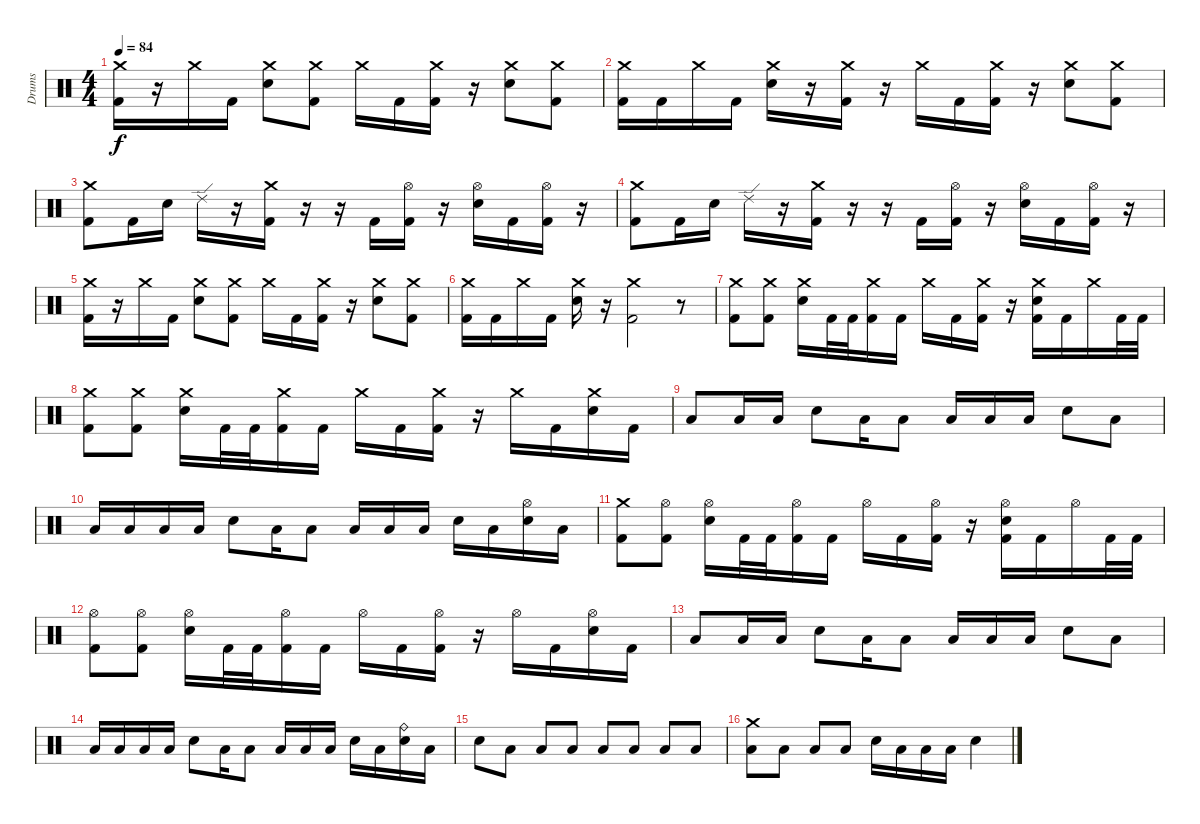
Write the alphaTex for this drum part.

\track ("Drums" "Drums") {instrument percussion}
\staff {score}
\articulation defaults
\ts (4 4)
\tempo 84
\clef neutral
\ks c
("Crash medium (hit)" "Kick (hit) 2").16{dy f} r.16 "Crash medium (hit)".16 "Kick (hit) 2".16 ("Crash medium (hit)" "Electric Snare (hit)").8 ("Crash medium (hit)" "Kick (hit) 2").8 "Crash medium (hit)".16 "Kick (hit) 2".16 ("Crash medium (hit)" "Kick (hit) 2").16 r.16 ("Crash medium (hit)" "Electric Snare (hit)").8 ("Crash medium (hit)" "Kick (hit) 2").8 |
("Crash medium (hit)" "Kick (hit) 2").16 "Kick (hit) 2".16 "Crash medium (hit)".16 "Kick (hit) 2".16 ("Crash medium (hit)" "Electric Snare (hit)").16 r.16 ("Crash medium (hit)" "Kick (hit) 2").16 r.16 "Crash medium (hit)".16 "Kick (hit) 2".16 ("Crash medium (hit)" "Kick (hit) 2").16 r.16 ("Crash medium (hit)" "Electric Snare (hit)").8 ("Crash medium (hit)" "Kick (hit) 2").8 |
("Crash medium (hit)" "Kick (hit) 2").8 "Kick (hit) 2".16 "Electric Snare (hit)".16 "Ride (edge) 2".16 r.16 ("Crash medium (hit)" "Kick (hit) 2").16 r.16 r.16 "Kick (hit) 2".16 ("Hi-Hat (open)" "Kick (hit) 2").16 r.16 ("Hi-Hat (open)" "Electric Snare (hit)").16 "Kick (hit) 2".16 ("Hi-Hat (open)" "Kick (hit) 2").16 r.16 |
("Crash medium (hit)" "Kick (hit) 2").8 "Kick (hit) 2".16 "Electric Snare (hit)".16 "Ride (edge) 2".16 r.16 ("Crash medium (hit)" "Kick (hit) 2").16 r.16 r.16 "Kick (hit) 2".16 ("Hi-Hat (open)" "Kick (hit) 2").16 r.16 ("Hi-Hat (open)" "Electric Snare (hit)").16 "Kick (hit) 2".16 ("Hi-Hat (open)" "Kick (hit) 2").16 r.16 |
("Crash medium (hit)" "Kick (hit) 2").16 r.16 "Crash medium (hit)".16 "Kick (hit) 2".16 ("Crash medium (hit)" "Electric Snare (hit)").8 ("Crash medium (hit)" "Kick (hit) 2").8 "Crash medium (hit)".16 "Kick (hit) 2".16 ("Crash medium (hit)" "Kick (hit) 2").16 r.16 ("Crash medium (hit)" "Electric Snare (hit)").8 ("Crash medium (hit)" "Kick (hit) 2").8 |
("Crash medium (hit)" "Kick (hit) 2").16 "Kick (hit) 2".16 "Crash medium (hit)".16 "Kick (hit) 2".16 ("Crash medium (hit)" "Electric Snare (hit)").16 r.16 ("Crash medium (hit)" "Kick (hit) 2").2 r.8 |
("Crash medium (hit)" "Kick (hit) 2").8 ("Crash medium (hit)" "Kick (hit) 2").8 ("Crash medium (hit)" "Electric Snare (hit)").16 "Kick (hit) 2".32 "Kick (hit) 2".32 ("Crash medium (hit)" "Kick (hit) 2").16 "Kick (hit) 2".16 "Crash medium (hit)".16 "Kick (hit) 2".16 ("Crash medium (hit)" "Kick (hit) 2").16 r.16 ("Crash medium (hit)" "Electric Snare (hit)" "Kick (hit) 2").16 "Kick (hit) 2".16 "Crash medium (hit)".16 "Kick (hit) 2".32 "Kick (hit) 2".32 |
("Crash medium (hit)" "Kick (hit) 2").8 ("Crash medium (hit)" "Kick (hit) 2").8 ("Crash medium (hit)" "Electric Snare (hit)").16 "Kick (hit) 2".32 "Kick (hit) 2".32 ("Crash medium (hit)" "Kick (hit) 2").16 "Kick (hit) 2".16 "Crash medium (hit)".16 "Kick (hit) 2".16 ("Crash medium (hit)" "Kick (hit) 2").16 r.16 "Crash medium (hit)".16 "Kick (hit) 2".16 ("Crash medium (hit)" "Electric Snare (hit)").16 "Kick (hit) 2".16 |
"Low Floor Tom (hit)".8 "Low Floor Tom (hit)".16 "Low Floor Tom (hit)".16 "Electric Snare (hit)".8 "Low Floor Tom (hit)".16 "Low Floor Tom (hit)".8 "Low Floor Tom (hit)".16 "Low Floor Tom (hit)".16 "Low Floor Tom (hit)".16 "Electric Snare (hit)".8 "Low Floor Tom (hit)".8 |
"Low Floor Tom (hit)".16 "Low Floor Tom (hit)".16 "Low Floor Tom (hit)".16 "Low Floor Tom (hit)".16 "Electric Snare (hit)".8 "Low Floor Tom (hit)".16 "Low Floor Tom (hit)".8 "Low Floor Tom (hit)".16 "Low Floor Tom (hit)".16 "Low Floor Tom (hit)".16 "Electric Snare (hit)".16 "Low Floor Tom (hit)".16 ("Hi-Hat (open)" "Electric Snare (hit)").16 "Low Floor Tom (hit)".16 |
("Crash medium (hit)" "Kick (hit) 2").8 ("Hi-Hat (open)" "Kick (hit) 2").8 ("Hi-Hat (open)" "Electric Snare (hit)").16 "Kick (hit) 2".32 "Kick (hit) 2".32 ("Hi-Hat (open)" "Kick (hit) 2").16 "Kick (hit) 2".16 "Hi-Hat (open)".16 "Kick (hit) 2".16 ("Hi-Hat (open)" "Kick (hit) 2").16 r.16 ("Hi-Hat (open)" "Electric Snare (hit)" "Kick (hit) 2").16 "Kick (hit) 2".16 "Hi-Hat (open)".16 "Kick (hit) 2".32 "Kick (hit) 2".32 |
("Hi-Hat (open)" "Kick (hit) 2").8 ("Hi-Hat (open)" "Kick (hit) 2").8 ("Hi-Hat (open)" "Electric Snare (hit)").16 "Kick (hit) 2".32 "Kick (hit) 2".32 ("Hi-Hat (open)" "Kick (hit) 2").16 "Kick (hit) 2".16 "Hi-Hat (open)".16 "Kick (hit) 2".16 ("Hi-Hat (open)" "Kick (hit) 2").16 r.16 "Hi-Hat (open)".16 "Kick (hit) 2".16 ("Hi-Hat (open)" "Electric Snare (hit)").16 "Kick (hit) 2".16 |
"Low Floor Tom (hit)".8 "Low Floor Tom (hit)".16 "Low Floor Tom (hit)".16 "Electric Snare (hit)".8 "Low Floor Tom (hit)".16 "Low Floor Tom (hit)".8 "Low Floor Tom (hit)".16 "Low Floor Tom (hit)".16 "Low Floor Tom (hit)".16 "Electric Snare (hit)".8 "Low Floor Tom (hit)".8 |
"Low Floor Tom (hit)".16 "Low Floor Tom (hit)".16 "Low Floor Tom (hit)".16 "Low Floor Tom (hit)".16 "Electric Snare (hit)".8 "Low Floor Tom (hit)".16 "Low Floor Tom (hit)".8 "Low Floor Tom (hit)".16 "Low Floor Tom (hit)".16 "Low Floor Tom (hit)".16 "Electric Snare (hit)".16 "Low Floor Tom (hit)".16 ("Ride (bell)" "Electric Snare (hit)").16 "Low Floor Tom (hit)".16 |
"Electric Snare (hit)".8 "Low Floor Tom (hit)".8 "Low Floor Tom (hit)".8 "Low Floor Tom (hit)".8 "Low Floor Tom (hit)".8 "Low Floor Tom (hit)".8 "Low Floor Tom (hit)".8 "Low Floor Tom (hit)".8 |
("Crash medium (hit)" "Low Floor Tom (hit)").8 "Low Floor Tom (hit)".8 "Low Floor Tom (hit)".8 "Low Floor Tom (hit)".8 "Electric Snare (hit)".16 "Low Floor Tom (hit)".16 "Low Floor Tom (hit)".16 "Low Floor Tom (hit)".16 "Electric Snare (hit)".4
